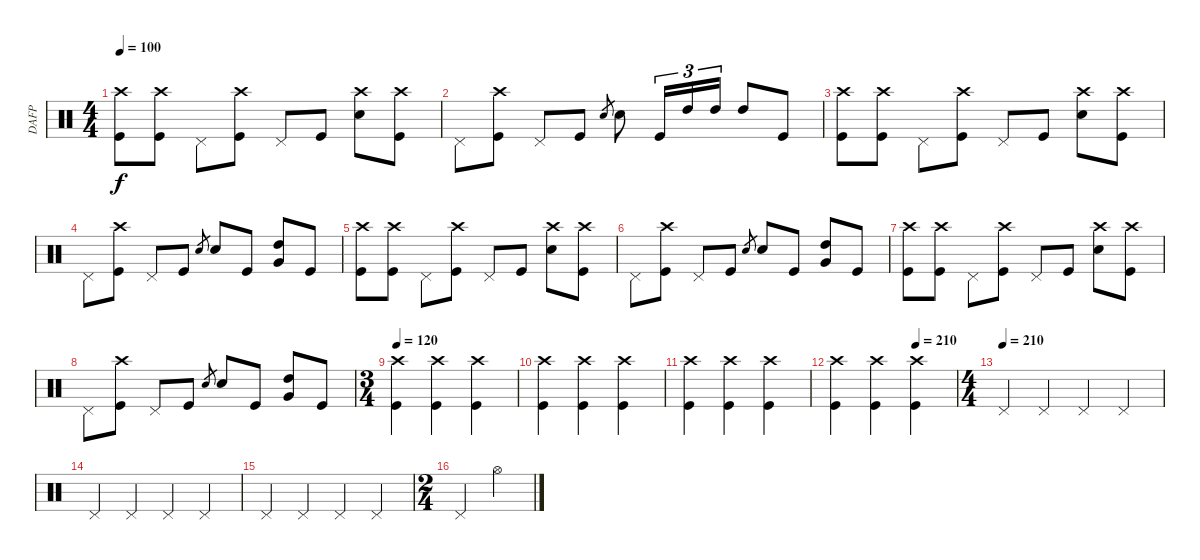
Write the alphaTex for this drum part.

\track ("DAFP" "DAFP") {instrument percussion}
\staff {score}
\articulation defaults
\ts (4 4)
\tempo 100
\clef neutral
\ks c
("Crash high (hit)" "Kick (hit)").8{dy f} ("Kick (hit)" "Crash high (hit)").8 "Pedal Hi-Hat (hit)".8 ("Kick (hit)" "Crash high (hit)").8 "Pedal Hi-Hat (hit)".8 "Kick (hit)".8 ("Snare (hit) 2" "Crash high (hit)").8 ("Kick (hit)" "Crash high (hit)").8 |
"Pedal Hi-Hat (hit)".8 ("Crash high (hit)" "Kick (hit)").8 "Pedal Hi-Hat (hit)".8 "Kick (hit)".8 "Snare (hit) 2".8{gr} "Snare (hit) 2".8 "Kick (hit)".16{tu (3 2)} "High Tom (hit)".16{tu (3 2)} "High Tom (hit)".16{tu (3 2)} "High Tom (hit)".8 "Kick (hit)".8 |
("Crash high (hit)" "Kick (hit)").8 ("Kick (hit)" "Crash high (hit)").8 "Pedal Hi-Hat (hit)".8 ("Kick (hit)" "Crash high (hit)").8 "Pedal Hi-Hat (hit)".8 "Kick (hit)".8 ("Snare (hit) 2" "Crash high (hit)").8 ("Kick (hit)" "Crash high (hit)").8 |
"Pedal Hi-Hat (hit)".8 ("Crash high (hit)" "Kick (hit)").8 "Pedal Hi-Hat (hit)".8 "Kick (hit)".8 "Snare (hit) 2".8{gr} "Snare (hit) 2".8 "Kick (hit)".8 ("High Tom (hit)" "Very Low Tom (hit)").8 "Kick (hit)".8 |
("Crash high (hit)" "Kick (hit)").8 ("Kick (hit)" "Crash high (hit)").8 "Pedal Hi-Hat (hit)".8 ("Kick (hit)" "Crash high (hit)").8 "Pedal Hi-Hat (hit)".8 "Kick (hit)".8 ("Snare (hit) 2" "Crash high (hit)").8 ("Kick (hit)" "Crash high (hit)").8 |
"Pedal Hi-Hat (hit)".8 ("Crash high (hit)" "Kick (hit)").8 "Pedal Hi-Hat (hit)".8 "Kick (hit)".8 "Snare (hit) 2".8{gr} "Snare (hit) 2".8 "Kick (hit)".8 ("High Tom (hit)" "Very Low Tom (hit)").8 "Kick (hit)".8 |
("Crash high (hit)" "Kick (hit)").8 ("Kick (hit)" "Crash high (hit)").8 "Pedal Hi-Hat (hit)".8 ("Kick (hit)" "Crash high (hit)").8 "Pedal Hi-Hat (hit)".8 "Kick (hit)".8 ("Snare (hit) 2" "Crash high (hit)").8 ("Kick (hit)" "Crash high (hit)").8 |
"Pedal Hi-Hat (hit)".8 ("Crash high (hit)" "Kick (hit)").8 "Pedal Hi-Hat (hit)".8 "Kick (hit)".8 "Snare (hit) 2".8{gr} "Snare (hit) 2".8 "Kick (hit)".8 ("High Tom (hit)" "Very Low Tom (hit)").8 "Kick (hit)".8 |
\ts (3 4)
\tempo 120
("Crash high (hit)" "Kick (hit)").4 ("Kick (hit)" "Crash high (hit)").4 ("Kick (hit)" "Crash high (hit)").4 |
("Crash high (hit)" "Kick (hit)").4 ("Kick (hit)" "Crash high (hit)").4 ("Kick (hit)" "Crash high (hit)").4 |
("Crash high (hit)" "Kick (hit)").4 ("Kick (hit)" "Crash high (hit)").4 ("Kick (hit)" "Crash high (hit)").4 |
\tempo (210 0.6666666666666666)
("Crash high (hit)" "Kick (hit)").4 ("Kick (hit)" "Crash high (hit)").4 ("Kick (hit)" "Crash high (hit)").4 |
\ts (4 4)
\tempo (210)
"Pedal Hi-Hat (hit)".4 "Pedal Hi-Hat (hit)".4 "Pedal Hi-Hat (hit)".4 "Pedal Hi-Hat (hit)".4 |
"Pedal Hi-Hat (hit)".4 "Pedal Hi-Hat (hit)".4 "Pedal Hi-Hat (hit)".4 "Pedal Hi-Hat (hit)".4 |
"Pedal Hi-Hat (hit)".4 "Pedal Hi-Hat (hit)".4 "Pedal Hi-Hat (hit)".4 "Pedal Hi-Hat (hit)".4 |
\ts (2 4)
"Pedal Hi-Hat (hit)".4 "Hi-Hat (open)".4
